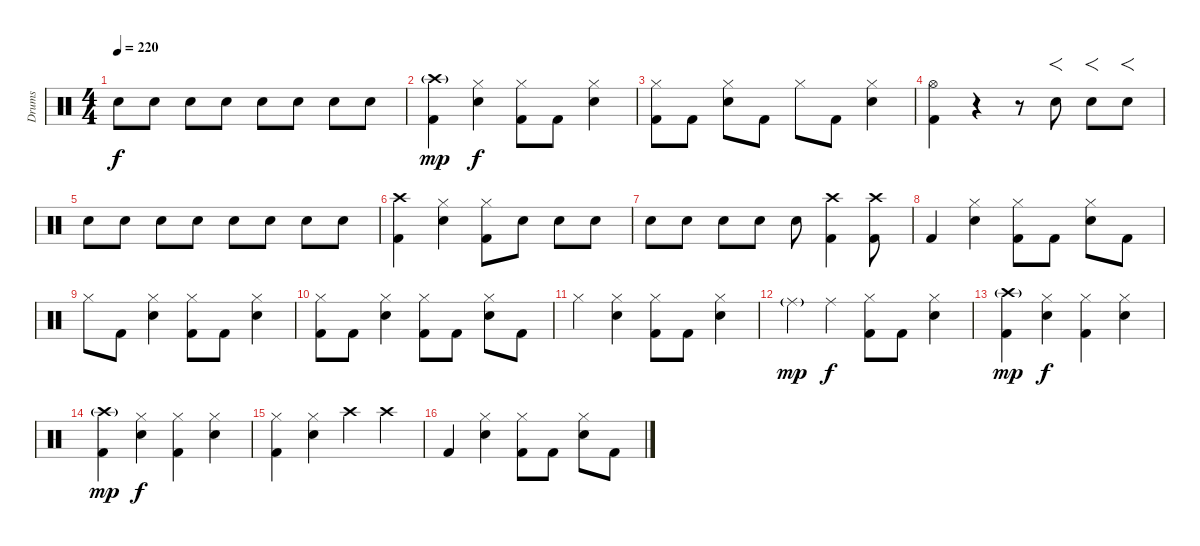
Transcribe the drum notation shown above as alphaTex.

\track ("Drums" "Drums") {instrument percussion}
\staff {score}
\articulation defaults
\ts (4 4)
\tempo 220
\clef neutral
\ks c "Snare (hit) 2".8{dy f} "Snare (hit) 2".8 "Snare (hit) 2".8 "Snare (hit) 2".8 "Snare (hit) 2".8 "Snare (hit) 2".8 "Snare (hit) 2".8 "Snare (hit) 2".8
|
("Crash high (hit)"{g} "Kick (hit) 2").4{dy mp} ("Hi-Hat (closed)" "Snare (hit) 2").4{dy f} ("Hi-Hat (closed)" "Kick (hit) 2").8 "Kick (hit) 2".8 ("Hi-Hat (closed)" "Snare (hit) 2").4 |
("Hi-Hat (closed)" "Kick (hit) 2").8 "Kick (hit) 2".8 ("Hi-Hat (closed)" "Snare (hit) 2").8 "Kick (hit) 2".8 "Hi-Hat (closed)".8 "Kick (hit) 2".8 ("Hi-Hat (closed)" "Snare (hit) 2").4 |
("Hi-Hat (open)" "Kick (hit) 2").4 r.4 r.8 "Snare (hit) 2".8{f} "Snare (hit) 2".8{f} "Snare (hit) 2".8{f} |
"Snare (hit) 2".8 "Snare (hit) 2".8 "Snare (hit) 2".8 "Snare (hit) 2".8 "Snare (hit) 2".8 "Snare (hit) 2".8 "Snare (hit) 2".8 "Snare (hit) 2".8 |
("Crash high (hit)" "Kick (hit) 2").4 ("Hi-Hat (closed)" "Snare (hit) 2").4 ("Hi-Hat (closed)" "Kick (hit) 2").8 "Snare (hit) 2".8 "Snare (hit) 2".8 "Snare (hit) 2".8 |
"Snare (hit) 2".8 "Snare (hit) 2".8 "Snare (hit) 2".8 "Snare (hit) 2".8 "Snare (hit) 2".8 ("Crash high (hit)" "Kick (hit) 2").4 ("Crash high (hit)" "Kick (hit) 2").8 |
"Kick (hit) 2".4 ("Hi-Hat (closed)" "Snare (hit) 2").4 ("Hi-Hat (closed)" "Kick (hit) 2").8 "Kick (hit) 2".8 ("Hi-Hat (closed)" "Snare (hit) 2").8 "Kick (hit) 2".8 |
"Hi-Hat (closed)".8 "Kick (hit) 2".8 ("Hi-Hat (closed)" "Snare (hit) 2").4 ("Hi-Hat (closed)" "Kick (hit) 2").8 "Kick (hit) 2".8 ("Hi-Hat (closed)" "Snare (hit) 2").4 |
("Hi-Hat (closed)" "Kick (hit) 2").8 "Kick (hit) 2".8 ("Hi-Hat (closed)" "Snare (hit) 2").4 ("Hi-Hat (closed)" "Kick (hit) 2").8 "Kick (hit) 2".8 ("Hi-Hat (closed)" "Snare (hit) 2").8 "Kick (hit) 2".8 |
"Hi-Hat (closed)".4 ("Hi-Hat (closed)" "Snare (hit) 2").4 ("Hi-Hat (closed)" "Kick (hit) 2").8 "Kick (hit) 2".8 ("Hi-Hat (closed)" "Snare (hit) 2").4 |
"Ride (middle)"{g}.4{dy mp} "Ride (middle)".4{dy f} ("Hi-Hat (closed)" "Kick (hit) 2").8 "Kick (hit) 2".8 ("Hi-Hat (closed)" "Snare (hit) 2").4 |
("Crash high (hit)"{g} "Kick (hit) 2").4{dy mp} ("Hi-Hat (closed)" "Snare (hit) 2").4{dy f} ("Hi-Hat (closed)" "Kick (hit) 2").4 ("Hi-Hat (closed)" "Snare (hit) 2").4 |
("Crash high (hit)"{g} "Kick (hit) 2").4{dy mp} ("Hi-Hat (closed)" "Snare (hit) 2").4{dy f} ("Hi-Hat (closed)" "Kick (hit) 2").4 ("Hi-Hat (closed)" "Snare (hit) 2").4 |
("Hi-Hat (closed)" "Kick (hit) 2").4 ("Hi-Hat (closed)" "Snare (hit) 2").4 "Crash high (hit)".4 "Crash high (hit)".4 |
"Kick (hit) 2".4 ("Hi-Hat (closed)" "Snare (hit) 2").4 ("Hi-Hat (closed)" "Kick (hit) 2").8 "Kick (hit) 2".8 ("Hi-Hat (closed)" "Snare (hit) 2").8 "Kick (hit) 2".8
